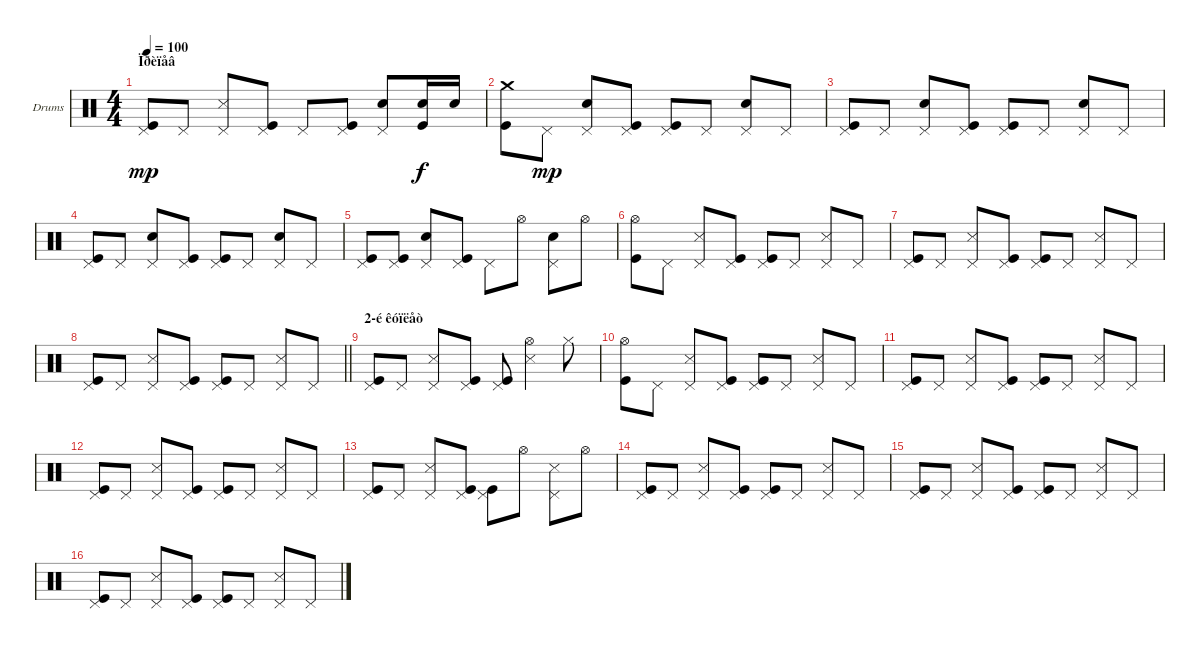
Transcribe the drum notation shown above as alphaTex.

\bracketExtendMode groupsimilarinstruments
\firstSystemTrackNameOrientation horizontal
\otherSystemsTrackNameOrientation horizontal
\track ("Drumkit" "Drums") {instrument percussion}
\staff {score}
\articulation defaults
\ts (4 4)
\section ("" "Ïðèïåâ")
\tempo 100
\clef neutral
\scale
0.333333
\ks c
("Pedal Hi-Hat (hit)" "Kick (hit)").8{dy mp} "Pedal Hi-Hat (hit)".8 ("Pedal Hi-Hat (hit)" "Snare (side stick) 3").8 ("Pedal Hi-Hat (hit)" "Kick (hit)").8 "Pedal Hi-Hat (hit)".8 ("Pedal Hi-Hat (hit)" "Kick (hit)").8 ("Pedal Hi-Hat (hit)" "Snare (hit) 2").8 ("Snare (hit) 2" "Kick (hit)").16{dy f} "Snare (hit) 2".16 |
\scale
0.333333 ("Crash medium (hit)" "Kick (hit)").8 "Pedal Hi-Hat (hit)".8{dy mp} ("Pedal Hi-Hat (hit)" "Snare (hit) 2").8 ("Pedal Hi-Hat (hit)" "Kick (hit)").8 ("Pedal Hi-Hat (hit)" "Kick (hit)").8 "Pedal Hi-Hat (hit)".8 ("Pedal Hi-Hat (hit)" "Snare (hit) 2").8 "Pedal Hi-Hat (hit)".8 |
\scale
0.333333 ("Pedal Hi-Hat (hit)" "Kick (hit)").8 "Pedal Hi-Hat (hit)".8 ("Pedal Hi-Hat (hit)" "Snare (hit) 2").8 ("Pedal Hi-Hat (hit)" "Kick (hit)").8 ("Pedal Hi-Hat (hit)" "Kick (hit)").8 "Pedal Hi-Hat (hit)".8 ("Pedal Hi-Hat (hit)" "Snare (hit) 2").8 "Pedal Hi-Hat (hit)".8 |
\scale
0.333333 ("Pedal Hi-Hat (hit)" "Kick (hit)").8 "Pedal Hi-Hat (hit)".8 ("Pedal Hi-Hat (hit)" "Snare (hit) 2").8 ("Pedal Hi-Hat (hit)" "Kick (hit)").8 ("Pedal Hi-Hat (hit)" "Kick (hit)").8 "Pedal Hi-Hat (hit)".8 ("Pedal Hi-Hat (hit)" "Snare (hit) 2").8 "Pedal Hi-Hat (hit)".8 |
\scale
0.333333 ("Pedal Hi-Hat (hit)" "Kick (hit)").8 ("Pedal Hi-Hat (hit)" "Kick (hit)").8 ("Pedal Hi-Hat (hit)" "Snare (hit) 2").8 ("Pedal Hi-Hat (hit)" "Kick (hit)").8 "Pedal Hi-Hat (hit)".8 "Hi-Hat (open)".8 ("Pedal Hi-Hat (hit)" "Snare (hit) 2").8 "Hi-Hat (open)".8 |
\scale
0.333333 ("Hi-Hat (open)" "Kick (hit)").8 "Pedal Hi-Hat (hit)".8 ("Pedal Hi-Hat (hit)" "Snare (side stick) 3").8 ("Pedal Hi-Hat (hit)" "Kick (hit)").8 ("Pedal Hi-Hat (hit)" "Kick (hit)").8 "Pedal Hi-Hat (hit)".8 ("Pedal Hi-Hat (hit)" "Snare (side stick) 3").8 "Pedal Hi-Hat (hit)".8 |
\scale
0.333333 ("Pedal Hi-Hat (hit)" "Kick (hit)").8 "Pedal Hi-Hat (hit)".8 ("Pedal Hi-Hat (hit)" "Snare (side stick) 3").8 ("Pedal Hi-Hat (hit)" "Kick (hit)").8 ("Pedal Hi-Hat (hit)" "Kick (hit)").8 "Pedal Hi-Hat (hit)".8 ("Pedal Hi-Hat (hit)" "Snare (side stick) 3").8 "Pedal Hi-Hat (hit)".8 |
\scale
0.333333
\barLineRight lightlight
("Pedal Hi-Hat (hit)" "Kick (hit)").8 "Pedal Hi-Hat (hit)".8 ("Pedal Hi-Hat (hit)" "Snare (side stick) 3").8 ("Pedal Hi-Hat (hit)" "Kick (hit)").8 ("Pedal Hi-Hat (hit)" "Kick (hit)").8 "Pedal Hi-Hat (hit)".8 ("Pedal Hi-Hat (hit)" "Snare (side stick) 3").8 "Pedal Hi-Hat (hit)".8 |
\section ("" "2-é êóïëåò")
\scale
0.333333 ("Pedal Hi-Hat (hit)" "Kick (hit)").8 "Pedal Hi-Hat (hit)".8 ("Pedal Hi-Hat (hit)" "Snare (side stick) 3").8 ("Pedal Hi-Hat (hit)" "Kick (hit)").8 ("Pedal Hi-Hat (hit)" "Kick (hit)").8 ("Hi-Hat (open)" "Snare (side stick) 3").4 "Hi-Hat (closed)".8 |
\scale
0.333333 ("Hi-Hat (open)" "Kick (hit)").8 "Pedal Hi-Hat (hit)".8 ("Pedal Hi-Hat (hit)" "Snare (side stick) 3").8 ("Pedal Hi-Hat (hit)" "Kick (hit)").8 ("Pedal Hi-Hat (hit)" "Kick (hit)").8 "Pedal Hi-Hat (hit)".8 ("Pedal Hi-Hat (hit)" "Snare (side stick) 3").8 "Pedal Hi-Hat (hit)".8 |
\scale
0.333333 ("Pedal Hi-Hat (hit)" "Kick (hit)").8 "Pedal Hi-Hat (hit)".8 ("Pedal Hi-Hat (hit)" "Snare (side stick) 3").8 ("Pedal Hi-Hat (hit)" "Kick (hit)").8 ("Pedal Hi-Hat (hit)" "Kick (hit)").8 "Pedal Hi-Hat (hit)".8 ("Pedal Hi-Hat (hit)" "Snare (side stick) 3").8 "Pedal Hi-Hat (hit)".8 |
\scale
0.333333 ("Pedal Hi-Hat (hit)" "Kick (hit)").8 "Pedal Hi-Hat (hit)".8 ("Pedal Hi-Hat (hit)" "Snare (side stick) 3").8 ("Pedal Hi-Hat (hit)" "Kick (hit)").8 ("Pedal Hi-Hat (hit)" "Kick (hit)").8 "Pedal Hi-Hat (hit)".8 ("Pedal Hi-Hat (hit)" "Snare (side stick) 3").8 "Pedal Hi-Hat (hit)".8 |
\scale
0.333333 ("Pedal Hi-Hat (hit)" "Kick (hit)").8 "Pedal Hi-Hat (hit)".8 ("Pedal Hi-Hat (hit)" "Snare (side stick) 3").8 ("Pedal Hi-Hat (hit)" "Kick (hit)").8 ("Pedal Hi-Hat (hit)" "Kick (hit)").8 "Hi-Hat (open)".8 ("Pedal Hi-Hat (hit)" "Snare (side stick) 3").8 "Hi-Hat (open)".8 |
\scale
0.333333 ("Pedal Hi-Hat (hit)" "Kick (hit)").8 "Pedal Hi-Hat (hit)".8 ("Pedal Hi-Hat (hit)" "Snare (side stick) 3").8 ("Pedal Hi-Hat (hit)" "Kick (hit)").8 ("Pedal Hi-Hat (hit)" "Kick (hit)").8 "Pedal Hi-Hat (hit)".8 ("Pedal Hi-Hat (hit)" "Snare (side stick) 3").8 "Pedal Hi-Hat (hit)".8 |
\scale
0.333333 ("Pedal Hi-Hat (hit)" "Kick (hit)").8 "Pedal Hi-Hat (hit)".8 ("Pedal Hi-Hat (hit)" "Snare (side stick) 3").8 ("Pedal Hi-Hat (hit)" "Kick (hit)").8 ("Pedal Hi-Hat (hit)" "Kick (hit)").8 "Pedal Hi-Hat (hit)".8 ("Pedal Hi-Hat (hit)" "Snare (side stick) 3").8 "Pedal Hi-Hat (hit)".8 |
\scale
0.333333 ("Pedal Hi-Hat (hit)" "Kick (hit)").8 "Pedal Hi-Hat (hit)".8 ("Pedal Hi-Hat (hit)" "Snare (side stick) 3").8 ("Pedal Hi-Hat (hit)" "Kick (hit)").8 ("Pedal Hi-Hat (hit)" "Kick (hit)").8 "Pedal Hi-Hat (hit)".8 ("Pedal Hi-Hat (hit)" "Snare (side stick) 3").8 "Pedal Hi-Hat (hit)".8
